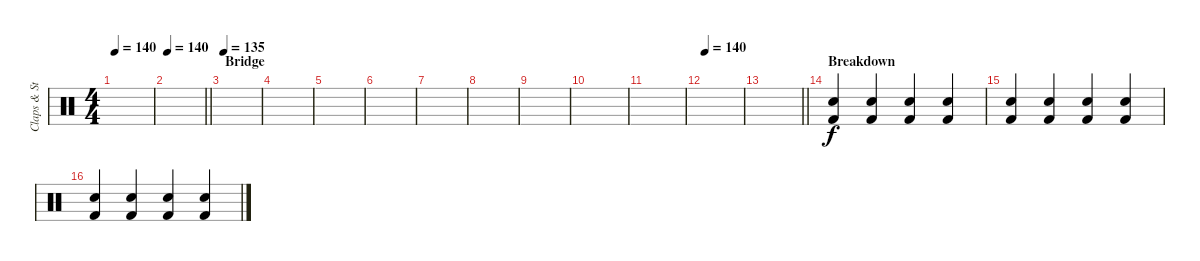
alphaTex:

\track ("Claps & Stomps" "Claps & St") {instrument percussion}
\staff {score}
\articulation defaults
\ts (4 4)
\tempo 140
\clef neutral
\ks c
|
\tempo 140
\barLineRight lightlight
|
\section ("" "Bridge")
\tempo 135
|
|
|
|
|
|
|
|
|
\tempo 140
|
\barLineRight lightlight
|
\section ("" "Breakdown")
("Hand Clap (hit)" "Kick (hit) 2").4 ("Hand Clap (hit)" "Kick (hit) 2").4 ("Hand Clap (hit)" "Kick (hit) 2").4 ("Hand Clap (hit)" "Kick (hit) 2").4 |
("Hand Clap (hit)" "Kick (hit) 2").4 ("Hand Clap (hit)" "Kick (hit) 2").4 ("Hand Clap (hit)" "Kick (hit) 2").4 ("Hand Clap (hit)" "Kick (hit) 2").4 |
("Hand Clap (hit)" "Kick (hit) 2").4 ("Hand Clap (hit)" "Kick (hit) 2").4 ("Hand Clap (hit)" "Kick (hit) 2").4 ("Hand Clap (hit)" "Kick (hit) 2").4
